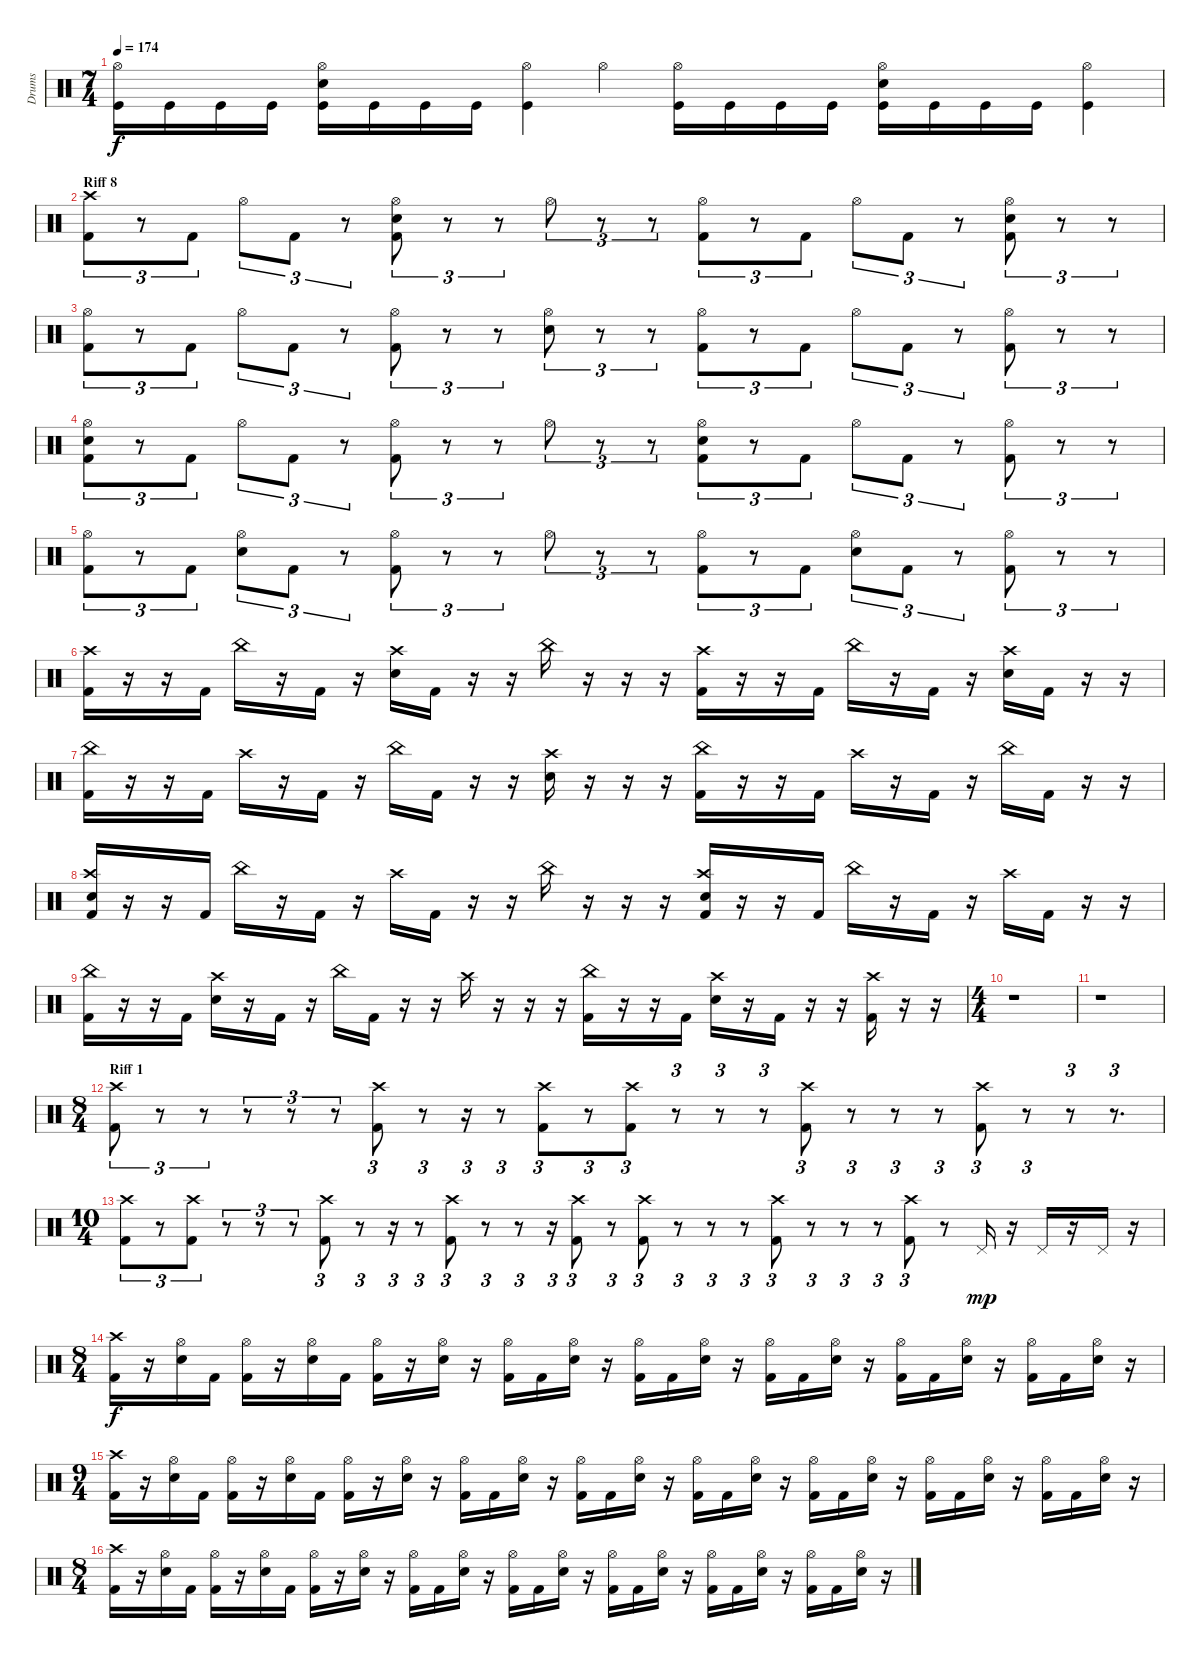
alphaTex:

\track ("Drums" "Drums") {instrument percussion}
\staff {score}
\articulation defaults
\ts (7 4)
\tempo 174
\clef neutral
\ks c
("Hi-Hat (open)" "Kick (hit)").16{dy f} "Kick (hit)".16 "Kick (hit)".16 "Kick (hit)".16 ("Hi-Hat (open)" "Electric Snare (hit)" "Kick (hit)").16 "Kick (hit)".16 "Kick (hit)".16 "Kick (hit)".16 ("Hi-Hat (open)" "Kick (hit)").4 "Hi-Hat (open)".4 ("Hi-Hat (open)" "Kick (hit)").16 "Kick (hit)".16 "Kick (hit)".16 "Kick (hit)".16 ("Hi-Hat (open)" "Electric Snare (hit)" "Kick (hit)").16 "Kick (hit)".16 "Kick (hit)".16 "Kick (hit)".16 ("Hi-Hat (open)" "Kick (hit)").4 |
\section ("" "Riff 8")
("Crash high (hit)" "Kick (hit) 2").8{tu (3 2)} r.8{tu (3 2)} "Kick (hit) 2".8{tu (3 2)} "Hi-Hat (open)".8{tu (3 2)} "Kick (hit) 2".8{tu (3 2)} r.8{tu (3 2)} ("Hi-Hat (open)" "Electric Snare (hit)" "Kick (hit) 2").8{tu (3 2)} r.8{tu (3 2)} r.8{tu (3 2)} "Hi-Hat (open)".8{tu (3 2)} r.8{tu (3 2)} r.8{tu (3 2)} ("Hi-Hat (open)" "Kick (hit) 2").8{tu (3 2)} r.8{tu (3 2)} "Kick (hit) 2".8{tu (3 2)} "Hi-Hat (open)".8{tu (3 2)} "Kick (hit) 2".8{tu (3 2)} r.8{tu (3 2)} ("Hi-Hat (open)" "Electric Snare (hit)" "Kick (hit) 2").8{tu (3 2)} r.8{tu (3 2)} r.8{tu (3 2)} |
("Hi-Hat (open)" "Kick (hit) 2").8{tu (3 2)} r.8{tu (3 2)} "Kick (hit) 2".8{tu (3 2)} "Hi-Hat (open)".8{tu (3 2)} "Kick (hit) 2".8{tu (3 2)} r.8{tu (3 2)} ("Hi-Hat (open)" "Kick (hit) 2").8{tu (3 2)} r.8{tu (3 2)} r.8{tu (3 2)} ("Hi-Hat (open)" "Electric Snare (hit)").8{tu (3 2)} r.8{tu (3 2)} r.8{tu (3 2)} ("Hi-Hat (open)" "Kick (hit) 2").8{tu (3 2)} r.8{tu (3 2)} "Kick (hit) 2".8{tu (3 2)} "Hi-Hat (open)".8{tu (3 2)} "Kick (hit) 2".8{tu (3 2)} r.8{tu (3 2)} ("Hi-Hat (open)" "Kick (hit) 2").8{tu (3 2)} r.8{tu (3 2)} r.8{tu (3 2)} |
("Hi-Hat (open)" "Electric Snare (hit)" "Kick (hit) 2").8{tu (3 2)} r.8{tu (3 2)} "Kick (hit) 2".8{tu (3 2)} "Hi-Hat (open)".8{tu (3 2)} "Kick (hit) 2".8{tu (3 2)} r.8{tu (3 2)} ("Hi-Hat (open)" "Kick (hit) 2").8{tu (3 2)} r.8{tu (3 2)} r.8{tu (3 2)} "Hi-Hat (open)".8{tu (3 2)} r.8{tu (3 2)} r.8{tu (3 2)} ("Hi-Hat (open)" "Electric Snare (hit)" "Kick (hit) 2").8{tu (3 2)} r.8{tu (3 2)} "Kick (hit) 2".8{tu (3 2)} "Hi-Hat (open)".8{tu (3 2)} "Kick (hit) 2".8{tu (3 2)} r.8{tu (3 2)} ("Hi-Hat (open)" "Kick (hit) 2").8{tu (3 2)} r.8{tu (3 2)} r.8{tu (3 2)} |
("Hi-Hat (open)" "Kick (hit) 2").8{tu (3 2)} r.8{tu (3 2)} "Kick (hit) 2".8{tu (3 2)} ("Hi-Hat (open)" "Electric Snare (hit)").8{tu (3 2)} "Kick (hit) 2".8{tu (3 2)} r.8{tu (3 2)} ("Hi-Hat (open)" "Kick (hit) 2").8{tu (3 2)} r.8{tu (3 2)} r.8{tu (3 2)} "Hi-Hat (open)".8{tu (3 2)} r.8{tu (3 2)} r.8{tu (3 2)} ("Hi-Hat (open)" "Kick (hit) 2").8{tu (3 2)} r.8{tu (3 2)} "Kick (hit) 2".8{tu (3 2)} ("Hi-Hat (open)" "Electric Snare (hit)").8{tu (3 2)} "Kick (hit) 2".8{tu (3 2)} r.8{tu (3 2)} ("Hi-Hat (open)" "Kick (hit) 2").8{tu (3 2)} r.8{tu (3 2)} r.8{tu (3 2)} |
("Crash high (hit)" "Kick (hit) 2").16 r.16 r.16 "Kick (hit) 2".16 "China (hit)".16 r.16 "Kick (hit) 2".16 r.16 ("Crash high (hit)" "Electric Snare (hit)").16 "Kick (hit) 2".16 r.16 r.16 "China (hit)".16 r.16 r.16 r.16 ("Crash high (hit)" "Kick (hit) 2").16 r.16 r.16 "Kick (hit) 2".16 "China (hit)".16 r.16 "Kick (hit) 2".16 r.16 ("Crash high (hit)" "Electric Snare (hit)").16 "Kick (hit) 2".16 r.16 r.16 |
("China (hit)" "Kick (hit) 2").16 r.16 r.16 "Kick (hit) 2".16 "Crash high (hit)".16 r.16 "Kick (hit) 2".16 r.16 "China (hit)".16 "Kick (hit) 2".16 r.16 r.16 ("Crash high (hit)" "Electric Snare (hit)").16 r.16 r.16 r.16 ("China (hit)" "Kick (hit) 2").16 r.16 r.16 "Kick (hit) 2".16 "Crash high (hit)".16 r.16 "Kick (hit) 2".16 r.16 "China (hit)".16 "Kick (hit) 2".16 r.16 r.16 |
("Crash high (hit)" "Electric Snare (hit)" "Kick (hit) 2").16 r.16 r.16 "Kick (hit) 2".16 "China (hit)".16 r.16 "Kick (hit) 2".16 r.16 "Crash high (hit)".16 "Kick (hit) 2".16 r.16 r.16 "China (hit)".16 r.16 r.16 r.16 ("Crash high (hit)" "Electric Snare (hit)" "Kick (hit) 2").16 r.16 r.16 "Kick (hit) 2".16 "China (hit)".16 r.16 "Kick (hit) 2".16 r.16 "Crash high (hit)".16 "Kick (hit) 2".16 r.16 r.16 |
("China (hit)" "Kick (hit) 2").16 r.16 r.16 "Kick (hit) 2".16 ("Crash high (hit)" "Electric Snare (hit)").16 r.16 "Kick (hit) 2".16 r.16 "China (hit)".16 "Kick (hit) 2".16 r.16 r.16 "Crash high (hit)".16 r.16 r.16 r.16 ("China (hit)" "Kick (hit) 2").16 r.16 r.16 "Kick (hit) 2".16 ("Crash high (hit)" "Electric Snare (hit)").16 r.16 "Kick (hit) 2".16 r.16 r.16 ("Crash high (hit)" "Kick (hit) 2").16 r.16 r.16 |
\ts (4 4)
r.1 |
r.1 |
\ts (8 4)
\section ("" "Riff 1")
("Crash high (hit)" "Kick (hit) 2").8{tu (3 2)} r.8{tu (3 2)} r.8{tu (3 2)} r.8{tu (3 2)} r.8{tu (3 2)} r.8{tu (3 2)} ("Crash high (hit)" "Kick (hit) 2").8{tu (3 2)} r.8{tu (3 2)} r.16{tu (3 2)} r.8{tu (3 2)} ("Crash high (hit)" "Kick (hit) 2").8{tu (3 2)} r.8{tu (3 2)} ("Crash high (hit)" "Kick (hit) 2").8{tu (3 2)} r.8{tu (3 2)} r.8{tu (3 2)} r.8{tu (3 2)} ("Crash high (hit)" "Kick (hit) 2").8{tu (3 2)} r.8{tu (3 2)} r.8{tu (3 2)} r.8{tu (3 2)} ("Crash high (hit)" "Kick (hit) 2").8{tu (3 2)} r.8{tu (3 2)} r.8{tu (3 2)} r.8{d tu (3 2)} |
\ts (10 4)
("Crash high (hit)" "Kick (hit) 2").8{tu (3 2)} r.8{tu (3 2)} ("Crash high (hit)" "Kick (hit) 2").8{tu (3 2)} r.8{tu (3 2)} r.8{tu (3 2)} r.8{tu (3 2)} ("Crash high (hit)" "Kick (hit) 2").8{tu (3 2)} r.8{tu (3 2)} r.16{tu (3 2)} r.8{tu (3 2)} ("Crash high (hit)" "Kick (hit) 2").8{tu (3 2)} r.8{tu (3 2)} r.8{tu (3 2)} r.16{tu (3 2)} ("Crash high (hit)" "Kick (hit) 2").8{tu (3 2)} r.8{tu (3 2)} ("Crash high (hit)" "Kick (hit) 2").8{tu (3 2)} r.8{tu (3 2)} r.8{tu (3 2)} r.8{tu (3 2)} ("Crash high (hit)" "Kick (hit) 2").8{tu (3 2)} r.8{tu (3 2)} r.8{tu (3 2)} r.8{tu (3 2)} ("Crash high (hit)" "Kick (hit) 2").8{tu (3 2)} r.8 "Pedal Hi-Hat (hit)".16{dy mp} r.16 "Pedal Hi-Hat (hit)".16 r.16 "Pedal Hi-Hat (hit)".16 r.16 |
\ts (8 4)
("Crash high (hit)" "Kick (hit) 2").16{dy f} r.16 ("Hi-Hat (open)" "Electric Snare (hit)").16 "Kick (hit) 2".16 ("Hi-Hat (open)" "Kick (hit) 2").16 r.16 ("Hi-Hat (open)" "Electric Snare (hit)").16 "Kick (hit) 2".16 ("Hi-Hat (open)" "Kick (hit) 2").16 r.16 ("Hi-Hat (open)" "Electric Snare (hit)").16 r.16 ("Hi-Hat (open)" "Kick (hit) 2").16 "Kick (hit) 2".16 ("Hi-Hat (open)" "Electric Snare (hit)").16 r.16 ("Hi-Hat (open)" "Kick (hit) 2").16 "Kick (hit) 2".16 ("Hi-Hat (open)" "Electric Snare (hit)").16 r.16 ("Hi-Hat (open)" "Kick (hit) 2").16 "Kick (hit) 2".16 ("Hi-Hat (open)" "Electric Snare (hit)").16 r.16 ("Hi-Hat (open)" "Kick (hit) 2").16 "Kick (hit) 2".16 ("Hi-Hat (open)" "Electric Snare (hit)").16 r.16 ("Hi-Hat (open)" "Kick (hit) 2").16 "Kick (hit) 2".16 ("Hi-Hat (open)" "Electric Snare (hit)").16 r.16 |
\ts (9 4)
("Crash high (hit)" "Kick (hit) 2").16 r.16 ("Hi-Hat (open)" "Electric Snare (hit)").16 "Kick (hit) 2".16 ("Hi-Hat (open)" "Kick (hit) 2").16 r.16 ("Hi-Hat (open)" "Electric Snare (hit)").16 "Kick (hit) 2".16 ("Hi-Hat (open)" "Kick (hit) 2").16 r.16 ("Hi-Hat (open)" "Electric Snare (hit)").16 r.16 ("Hi-Hat (open)" "Kick (hit) 2").16 "Kick (hit) 2".16 ("Hi-Hat (open)" "Electric Snare (hit)").16 r.16 ("Hi-Hat (open)" "Kick (hit) 2").16 "Kick (hit) 2".16 ("Hi-Hat (open)" "Electric Snare (hit)").16 r.16 ("Hi-Hat (open)" "Kick (hit) 2").16 "Kick (hit) 2".16 ("Hi-Hat (open)" "Electric Snare (hit)").16 r.16 ("Hi-Hat (open)" "Kick (hit) 2").16 "Kick (hit) 2".16 ("Hi-Hat (open)" "Electric Snare (hit)").16 r.16 ("Hi-Hat (open)" "Kick (hit) 2").16 "Kick (hit) 2".16 ("Hi-Hat (open)" "Electric Snare (hit)").16 r.16 ("Hi-Hat (open)" "Kick (hit) 2").16 "Kick (hit) 2".16 ("Hi-Hat (open)" "Electric Snare (hit)").16 r.16 |
\ts (8 4)
("Crash high (hit)" "Kick (hit) 2").16 r.16 ("Hi-Hat (open)" "Electric Snare (hit)").16 "Kick (hit) 2".16 ("Hi-Hat (open)" "Kick (hit) 2").16 r.16 ("Hi-Hat (open)" "Electric Snare (hit)").16 "Kick (hit) 2".16 ("Hi-Hat (open)" "Kick (hit) 2").16 r.16 ("Hi-Hat (open)" "Electric Snare (hit)").16 r.16 ("Hi-Hat (open)" "Kick (hit) 2").16 "Kick (hit) 2".16 ("Hi-Hat (open)" "Electric Snare (hit)").16 r.16 ("Hi-Hat (open)" "Kick (hit) 2").16 "Kick (hit) 2".16 ("Hi-Hat (open)" "Electric Snare (hit)").16 r.16 ("Hi-Hat (open)" "Kick (hit) 2").16 "Kick (hit) 2".16 ("Hi-Hat (open)" "Electric Snare (hit)").16 r.16 ("Hi-Hat (open)" "Kick (hit) 2").16 "Kick (hit) 2".16 ("Hi-Hat (open)" "Electric Snare (hit)").16 r.16 ("Hi-Hat (open)" "Kick (hit) 2").16 "Kick (hit) 2".16 ("Hi-Hat (open)" "Electric Snare (hit)").16 r.16
